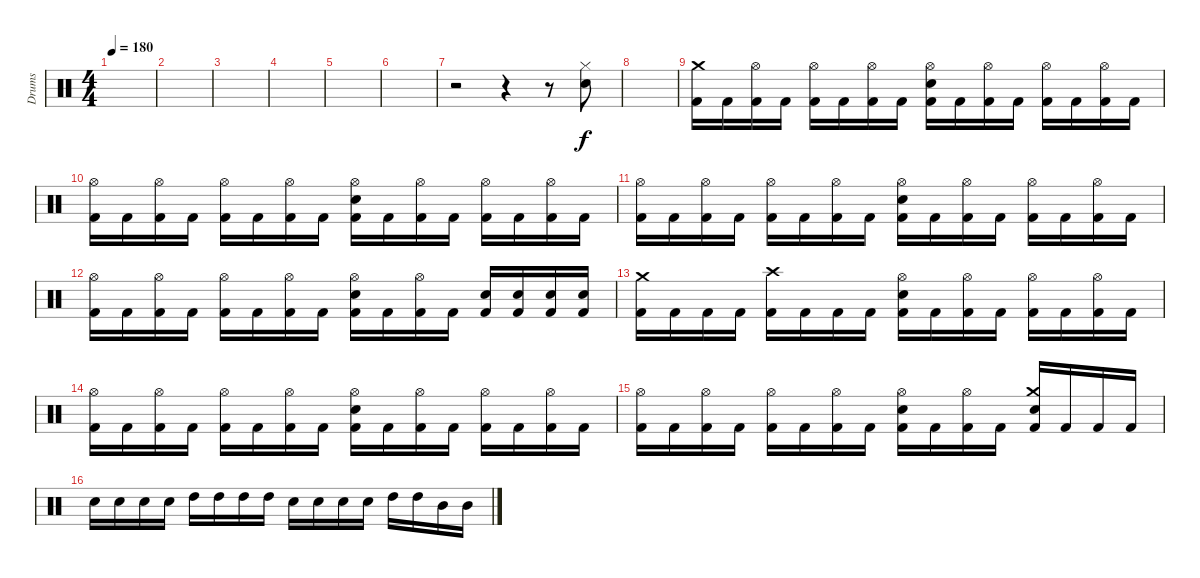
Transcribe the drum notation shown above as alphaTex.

\track ("Drums" "Drums") {instrument percussion}
\staff {score}
\articulation defaults
\ts (4 4)
\tempo 180
\clef neutral
\ks c
|
|
|
|
|
|
r.2 r.4 r.8 ("Hi-Hat (closed)" "Electric Snare (hit)").8 |
|
("Crash medium (hit)" "Kick (hit) 2").16 "Kick (hit) 2".16 ("Hi-Hat (open)" "Kick (hit) 2").16 "Kick (hit) 2".16 ("Hi-Hat (open)" "Kick (hit) 2").16 "Kick (hit) 2".16 ("Hi-Hat (open)" "Kick (hit) 2").16 "Kick (hit) 2".16 ("Hi-Hat (open)" "Electric Snare (hit)" "Kick (hit) 2").16 "Kick (hit) 2".16 ("Hi-Hat (open)" "Kick (hit) 2").16 "Kick (hit) 2".16 ("Hi-Hat (open)" "Kick (hit) 2").16 "Kick (hit) 2".16 ("Hi-Hat (open)" "Kick (hit) 2").16 "Kick (hit) 2".16 |
("Hi-Hat (open)" "Kick (hit) 2").16 "Kick (hit) 2".16 ("Hi-Hat (open)" "Kick (hit) 2").16 "Kick (hit) 2".16 ("Hi-Hat (open)" "Kick (hit) 2").16 "Kick (hit) 2".16 ("Hi-Hat (open)" "Kick (hit) 2").16 "Kick (hit) 2".16 ("Hi-Hat (open)" "Electric Snare (hit)" "Kick (hit) 2").16 "Kick (hit) 2".16 ("Hi-Hat (open)" "Kick (hit) 2").16 "Kick (hit) 2".16 ("Hi-Hat (open)" "Kick (hit) 2").16 "Kick (hit) 2".16 ("Hi-Hat (open)" "Kick (hit) 2").16 "Kick (hit) 2".16 |
("Hi-Hat (open)" "Kick (hit) 2").16 "Kick (hit) 2".16 ("Hi-Hat (open)" "Kick (hit) 2").16 "Kick (hit) 2".16 ("Hi-Hat (open)" "Kick (hit) 2").16 "Kick (hit) 2".16 ("Hi-Hat (open)" "Kick (hit) 2").16 "Kick (hit) 2".16 ("Hi-Hat (open)" "Electric Snare (hit)" "Kick (hit) 2").16 "Kick (hit) 2".16 ("Hi-Hat (open)" "Kick (hit) 2").16 "Kick (hit) 2".16 ("Hi-Hat (open)" "Kick (hit) 2").16 "Kick (hit) 2".16 ("Hi-Hat (open)" "Kick (hit) 2").16 "Kick (hit) 2".16 |
("Hi-Hat (open)" "Kick (hit) 2").16 "Kick (hit) 2".16 ("Hi-Hat (open)" "Kick (hit) 2").16 "Kick (hit) 2".16 ("Hi-Hat (open)" "Kick (hit) 2").16 "Kick (hit) 2".16 ("Hi-Hat (open)" "Kick (hit) 2").16 "Kick (hit) 2".16 ("Hi-Hat (open)" "Electric Snare (hit)" "Kick (hit) 2").16 "Kick (hit) 2".16 ("Hi-Hat (open)" "Kick (hit) 2").16 "Kick (hit) 2".16 ("Electric Snare (hit)" "Kick (hit) 2").16 ("Electric Snare (hit)" "Kick (hit) 2").16 ("Electric Snare (hit)" "Kick (hit) 2").16 ("Electric Snare (hit)" "Kick (hit) 2").16 |
("Crash medium (hit)" "Kick (hit) 2").16 "Kick (hit) 2".16 "Kick (hit) 2".16 "Kick (hit) 2".16 ("Crash high (hit)" "Kick (hit) 2").16 "Kick (hit) 2".16 "Kick (hit) 2".16 "Kick (hit) 2".16 ("Hi-Hat (open)" "Electric Snare (hit)" "Kick (hit) 2").16 "Kick (hit) 2".16 ("Hi-Hat (open)" "Kick (hit) 2").16 "Kick (hit) 2".16 ("Hi-Hat (open)" "Kick (hit) 2").16 "Kick (hit) 2".16 ("Hi-Hat (open)" "Kick (hit) 2").16 "Kick (hit) 2".16 |
("Hi-Hat (open)" "Kick (hit) 2").16 "Kick (hit) 2".16 ("Hi-Hat (open)" "Kick (hit) 2").16 "Kick (hit) 2".16 ("Hi-Hat (open)" "Kick (hit) 2").16 "Kick (hit) 2".16 ("Hi-Hat (open)" "Kick (hit) 2").16 "Kick (hit) 2".16 ("Hi-Hat (open)" "Electric Snare (hit)" "Kick (hit) 2").16 "Kick (hit) 2".16 ("Hi-Hat (open)" "Kick (hit) 2").16 "Kick (hit) 2".16 ("Hi-Hat (open)" "Kick (hit) 2").16 "Kick (hit) 2".16 ("Hi-Hat (open)" "Kick (hit) 2").16 "Kick (hit) 2".16 |
("Hi-Hat (open)" "Kick (hit) 2").16 "Kick (hit) 2".16 ("Hi-Hat (open)" "Kick (hit) 2").16 "Kick (hit) 2".16 ("Hi-Hat (open)" "Kick (hit) 2").16 "Kick (hit) 2".16 ("Hi-Hat (open)" "Kick (hit) 2").16 "Kick (hit) 2".16 ("Hi-Hat (open)" "Electric Snare (hit)" "Kick (hit) 2").16 "Kick (hit) 2".16 ("Hi-Hat (open)" "Kick (hit) 2").16 "Kick (hit) 2".16 ("Crash medium (hit)" "Electric Snare (hit)" "Kick (hit) 2").16 "Kick (hit) 2".16 "Kick (hit) 2".16 "Kick (hit) 2".16 |
"Electric Snare (hit)".16 "Electric Snare (hit)".16 "Electric Snare (hit)".16 "Electric Snare (hit)".16 "High Tom (hit)".16 "High Tom (hit)".16 "High Tom (hit)".16 "High Tom (hit)".16 "Electric Snare (hit)".16 "Electric Snare (hit)".16 "Electric Snare (hit)".16 "Electric Snare (hit)".16 "High Tom (hit)".16 "High Tom (hit)".16 "Mid Tom (hit)".16 "Mid Tom (hit)".16
